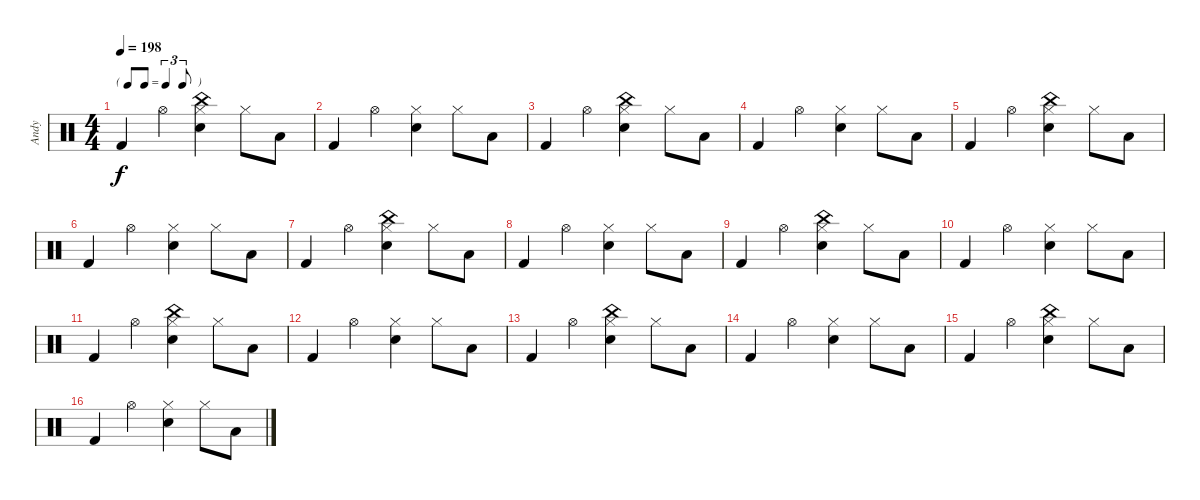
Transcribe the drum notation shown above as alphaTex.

\track ("Andy" "Andy") {instrument percussion}
\staff {score}
\articulation defaults
\ts (4 4)
\tf triplet8th
\tempo 198
\clef neutral
\ks c "Kick (hit) 2".4{dy f} "Hi-Hat (open)".4
("Hi-Hat (closed)" "China (hit)" "Electric Snare (hit)").4 "Hi-Hat (closed)".8 "Low Floor Tom (hit)".8 |
"Kick (hit) 2".4 "Hi-Hat (open)".4 ("Hi-Hat (closed)" "Electric Snare (hit)").4 "Hi-Hat (closed)".8 "Low Floor Tom (hit)".8 |
"Kick (hit) 2".4 "Hi-Hat (open)".4 ("Hi-Hat (closed)" "China (hit)" "Electric Snare (hit)").4 "Hi-Hat (closed)".8 "Low Floor Tom (hit)".8 |
"Kick (hit) 2".4 "Hi-Hat (open)".4 ("Hi-Hat (closed)" "Electric Snare (hit)").4 "Hi-Hat (closed)".8 "Low Floor Tom (hit)".8 |
"Kick (hit) 2".4 "Hi-Hat (open)".4 ("Hi-Hat (closed)" "China (hit)" "Electric Snare (hit)").4 "Hi-Hat (closed)".8 "Low Floor Tom (hit)".8 |
"Kick (hit) 2".4 "Hi-Hat (open)".4 ("Hi-Hat (closed)" "Electric Snare (hit)").4 "Hi-Hat (closed)".8 "Low Floor Tom (hit)".8 |
"Kick (hit) 2".4 "Hi-Hat (open)".4 ("Hi-Hat (closed)" "China (hit)" "Electric Snare (hit)").4 "Hi-Hat (closed)".8 "Low Floor Tom (hit)".8 |
"Kick (hit) 2".4 "Hi-Hat (open)".4 ("Hi-Hat (closed)" "Electric Snare (hit)").4 "Hi-Hat (closed)".8 "Low Floor Tom (hit)".8 |
"Kick (hit) 2".4 "Hi-Hat (open)".4 ("Hi-Hat (closed)" "China (hit)" "Electric Snare (hit)").4 "Hi-Hat (closed)".8 "Low Floor Tom (hit)".8 |
"Kick (hit) 2".4 "Hi-Hat (open)".4 ("Hi-Hat (closed)" "Electric Snare (hit)").4 "Hi-Hat (closed)".8 "Low Floor Tom (hit)".8 |
"Kick (hit) 2".4 "Hi-Hat (open)".4 ("Hi-Hat (closed)" "China (hit)" "Electric Snare (hit)").4 "Hi-Hat (closed)".8 "Low Floor Tom (hit)".8 |
"Kick (hit) 2".4 "Hi-Hat (open)".4 ("Hi-Hat (closed)" "Electric Snare (hit)").4 "Hi-Hat (closed)".8 "Low Floor Tom (hit)".8 |
"Kick (hit) 2".4 "Hi-Hat (open)".4 ("Hi-Hat (closed)" "China (hit)" "Electric Snare (hit)").4 "Hi-Hat (closed)".8 "Low Floor Tom (hit)".8 |
"Kick (hit) 2".4 "Hi-Hat (open)".4 ("Hi-Hat (closed)" "Electric Snare (hit)").4 "Hi-Hat (closed)".8 "Low Floor Tom (hit)".8 |
"Kick (hit) 2".4 "Hi-Hat (open)".4 ("China (hit)" "Hi-Hat (closed)" "Electric Snare (hit)").4 "Hi-Hat (closed)".8 "Low Floor Tom (hit)".8 |
"Kick (hit) 2".4 "Hi-Hat (open)".4 ("Hi-Hat (closed)" "Electric Snare (hit)").4 "Hi-Hat (closed)".8 "Low Floor Tom (hit)".8
